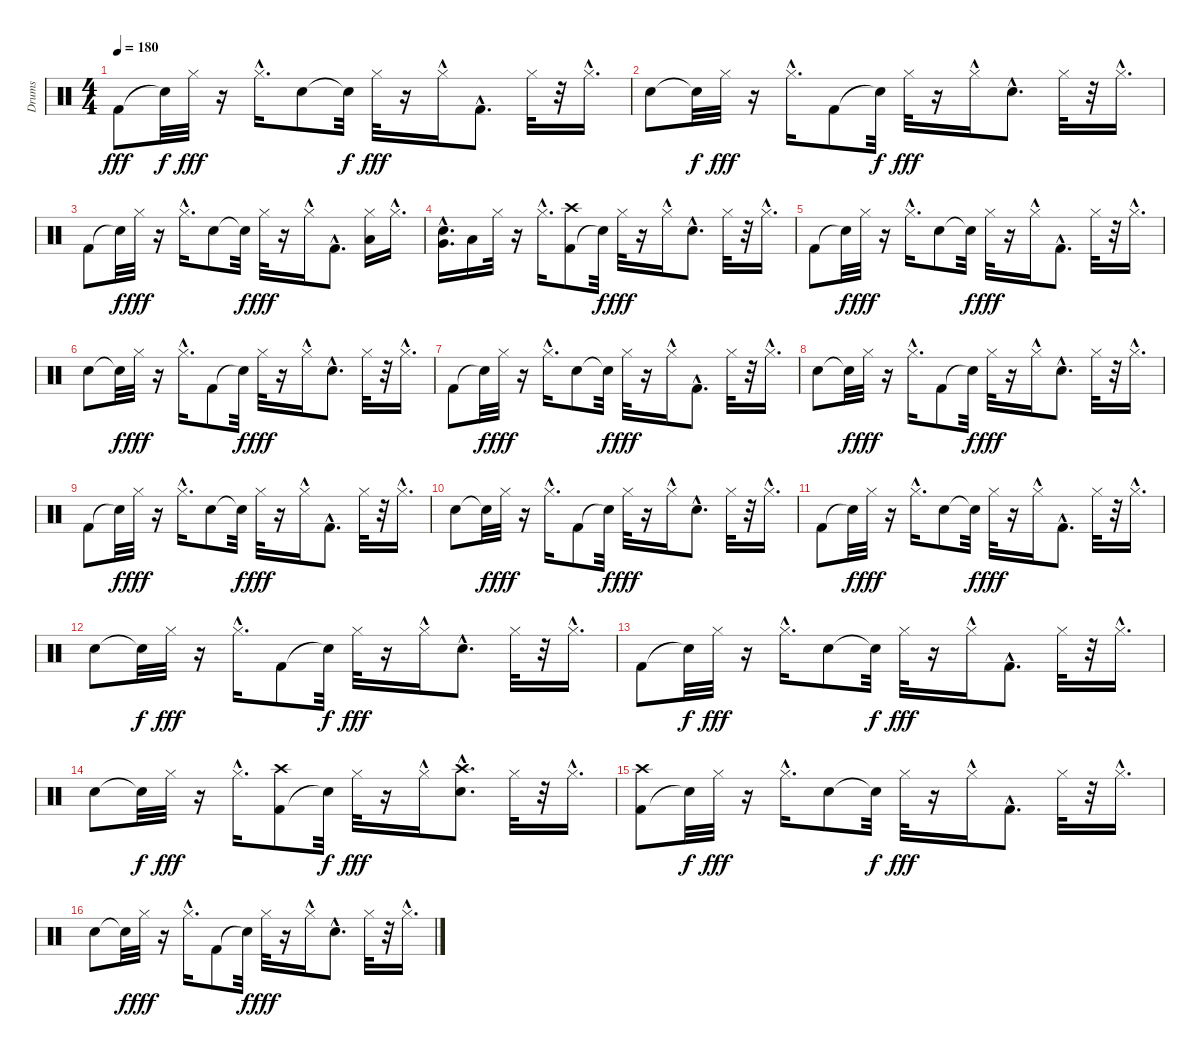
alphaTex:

\track ("Drums" "Drums") {instrument percussion}
\staff {score}
\articulation defaults
\ts (4 4)
\tempo 180
\clef neutral
\ks c "Kick (hit) 2".8{dy fff} "Snare (hit)"{t}.32{dy f} "Hi-Hat (closed)".32{dy fff}
r.16 "Hi-Hat (closed)"{hac}.16{d} "Snare (hit) 2".8 "Snare (hit)"{t}.32{dy f} "Hi-Hat (closed)".32{dy fff} r.16 "Hi-Hat (closed)"{hac}.16 "Kick (hit) 2"{hac}.8{d} "Hi-Hat (closed)".32 r.32 "Hi-Hat (closed)"{hac}.16{d} |
"Snare (hit) 2".8 "Snare (hit)"{t}.32{dy f} "Hi-Hat (closed)".32{dy fff} r.16 "Hi-Hat (closed)"{hac}.16{d} "Kick (hit) 2".8 "Snare (hit)"{t}.32{dy f} "Hi-Hat (closed)".32{dy fff} r.16 "Hi-Hat (closed)"{hac}.16 "Snare (hit) 2"{hac}.8{d} "Hi-Hat (closed)".32 r.32 "Hi-Hat (closed)"{hac}.16{d} |
"Kick (hit) 2".8 "Snare (hit)"{t}.32{dy f} "Hi-Hat (closed)".32{dy fff} r.16 "Hi-Hat (closed)"{hac}.16{d} "Snare (hit) 2".8 "Snare (hit)"{t}.32{dy f} "Hi-Hat (closed)".32{dy fff} r.16 "Hi-Hat (closed)"{hac}.16 "Kick (hit) 2"{hac}.8{d} ("Hi-Hat (closed)" "Low Tom (hit)").16 "Hi-Hat (closed)"{hac}.16{d} |
("Snare (hit) 2"{hac} "Very Low Tom (hit)").16{d} "Low Floor Tom (hit)".16 "Hi-Hat (closed)".32 r.16 "Hi-Hat (closed)"{hac}.16{d} ("Kick (hit) 2" "Crash high (hit)").8 "Snare (hit)"{t}.32{dy f} "Hi-Hat (closed)".32{dy fff} r.16 "Hi-Hat (closed)"{hac}.16 "Snare (hit) 2"{hac}.8{d} "Hi-Hat (closed)".32 r.32 "Hi-Hat (closed)"{hac}.16{d} |
"Kick (hit) 2".8 "Snare (hit)"{t}.32{dy f} "Hi-Hat (closed)".32{dy fff} r.16 "Hi-Hat (closed)"{hac}.16{d} "Snare (hit) 2".8 "Snare (hit)"{t}.32{dy f} "Hi-Hat (closed)".32{dy fff} r.16 "Hi-Hat (closed)"{hac}.16 "Kick (hit) 2"{hac}.8{d} "Hi-Hat (closed)".32 r.32 "Hi-Hat (closed)"{hac}.16{d} |
"Snare (hit) 2".8 "Snare (hit)"{t}.32{dy f} "Hi-Hat (closed)".32{dy fff} r.16 "Hi-Hat (closed)"{hac}.16{d} "Kick (hit) 2".8 "Snare (hit)"{t}.32{dy f} "Hi-Hat (closed)".32{dy fff} r.16 "Hi-Hat (closed)"{hac}.16 "Snare (hit) 2"{hac}.8{d} "Hi-Hat (closed)".32 r.32 "Hi-Hat (closed)"{hac}.16{d} |
"Kick (hit) 2".8 "Snare (hit)"{t}.32{dy f} "Hi-Hat (closed)".32{dy fff} r.16 "Hi-Hat (closed)"{hac}.16{d} "Snare (hit) 2".8 "Snare (hit)"{t}.32{dy f} "Hi-Hat (closed)".32{dy fff} r.16 "Hi-Hat (closed)"{hac}.16 "Kick (hit) 2"{hac}.8{d} "Hi-Hat (closed)".32 r.32 "Hi-Hat (closed)"{hac}.16{d} |
"Snare (hit) 2".8 "Snare (hit)"{t}.32{dy f} "Hi-Hat (closed)".32{dy fff} r.16 "Hi-Hat (closed)"{hac}.16{d} "Kick (hit) 2".8 "Snare (hit)"{t}.32{dy f} "Hi-Hat (closed)".32{dy fff} r.16 "Hi-Hat (closed)"{hac}.16 "Snare (hit) 2"{hac}.8{d} "Hi-Hat (closed)".32 r.32 "Hi-Hat (closed)"{hac}.16{d} |
"Kick (hit) 2".8 "Snare (hit)"{t}.32{dy f} "Hi-Hat (closed)".32{dy fff} r.16 "Hi-Hat (closed)"{hac}.16{d} "Snare (hit) 2".8 "Snare (hit)"{t}.32{dy f} "Hi-Hat (closed)".32{dy fff} r.16 "Hi-Hat (closed)"{hac}.16 "Kick (hit) 2"{hac}.8{d} "Hi-Hat (closed)".32 r.32 "Hi-Hat (closed)"{hac}.16{d} |
"Snare (hit) 2".8 "Snare (hit)"{t}.32{dy f} "Hi-Hat (closed)".32{dy fff} r.16 "Hi-Hat (closed)"{hac}.16{d} "Kick (hit) 2".8 "Snare (hit)"{t}.32{dy f} "Hi-Hat (closed)".32{dy fff} r.16 "Hi-Hat (closed)"{hac}.16 "Snare (hit) 2"{hac}.8{d} "Hi-Hat (closed)".32 r.32 "Hi-Hat (closed)"{hac}.16{d} |
"Kick (hit) 2".8 "Snare (hit)"{t}.32{dy f} "Hi-Hat (closed)".32{dy fff} r.16 "Hi-Hat (closed)"{hac}.16{d} "Snare (hit) 2".8 "Snare (hit)"{t}.32{dy f} "Hi-Hat (closed)".32{dy fff} r.16 "Hi-Hat (closed)"{hac}.16 "Kick (hit) 2"{hac}.8{d} "Hi-Hat (closed)".32 r.32 "Hi-Hat (closed)"{hac}.16{d} |
"Snare (hit) 2".8 "Snare (hit)"{t}.32{dy f} "Hi-Hat (closed)".32{dy fff} r.16 "Hi-Hat (closed)"{hac}.16{d} "Kick (hit) 2".8 "Snare (hit)"{t}.32{dy f} "Hi-Hat (closed)".32{dy fff} r.16 "Hi-Hat (closed)"{hac}.16 "Snare (hit) 2"{hac}.8{d} "Hi-Hat (closed)".32 r.32 "Hi-Hat (closed)"{hac}.16{d} |
"Kick (hit) 2".8 "Snare (hit)"{t}.32{dy f} "Hi-Hat (closed)".32{dy fff} r.16 "Hi-Hat (closed)"{hac}.16{d} "Snare (hit) 2".8 "Snare (hit)"{t}.32{dy f} "Hi-Hat (closed)".32{dy fff} r.16 "Hi-Hat (closed)"{hac}.16 "Kick (hit) 2"{hac}.8{d} "Hi-Hat (closed)".32 r.32 "Hi-Hat (closed)"{hac}.16{d} |
"Snare (hit) 2".8 "Snare (hit)"{t}.32{dy f} "Hi-Hat (closed)".32{dy fff} r.16 "Hi-Hat (closed)"{hac}.16{d} ("Kick (hit) 2" "Crash high (hit)").8 "Snare (hit)"{t}.32{dy f} "Hi-Hat (closed)".32{dy fff} r.16 "Hi-Hat (closed)"{hac}.16 ("Snare (hit) 2"{hac} "Crash high (hit)").8{d} "Hi-Hat (closed)".32 r.32 "Hi-Hat (closed)"{hac}.16{d} |
("Kick (hit) 2" "Crash high (hit)").8 "Snare (hit)"{t}.32{dy f} "Hi-Hat (closed)".32{dy fff} r.16 "Hi-Hat (closed)"{hac}.16{d} "Snare (hit) 2".8 "Snare (hit)"{t}.32{dy f} "Hi-Hat (closed)".32{dy fff} r.16 "Hi-Hat (closed)"{hac}.16 "Kick (hit) 2"{hac}.8{d} "Hi-Hat (closed)".32 r.32 "Hi-Hat (closed)"{hac}.16{d} |
"Snare (hit) 2".8 "Snare (hit)"{t}.32{dy f} "Hi-Hat (closed)".32{dy fff} r.16 "Hi-Hat (closed)"{hac}.16{d} "Kick (hit) 2".8 "Snare (hit)"{t}.32{dy f} "Hi-Hat (closed)".32{dy fff} r.16 "Hi-Hat (closed)"{hac}.16 "Snare (hit) 2"{hac}.8{d} "Hi-Hat (closed)".32 r.32 "Hi-Hat (closed)"{hac}.16{d}
